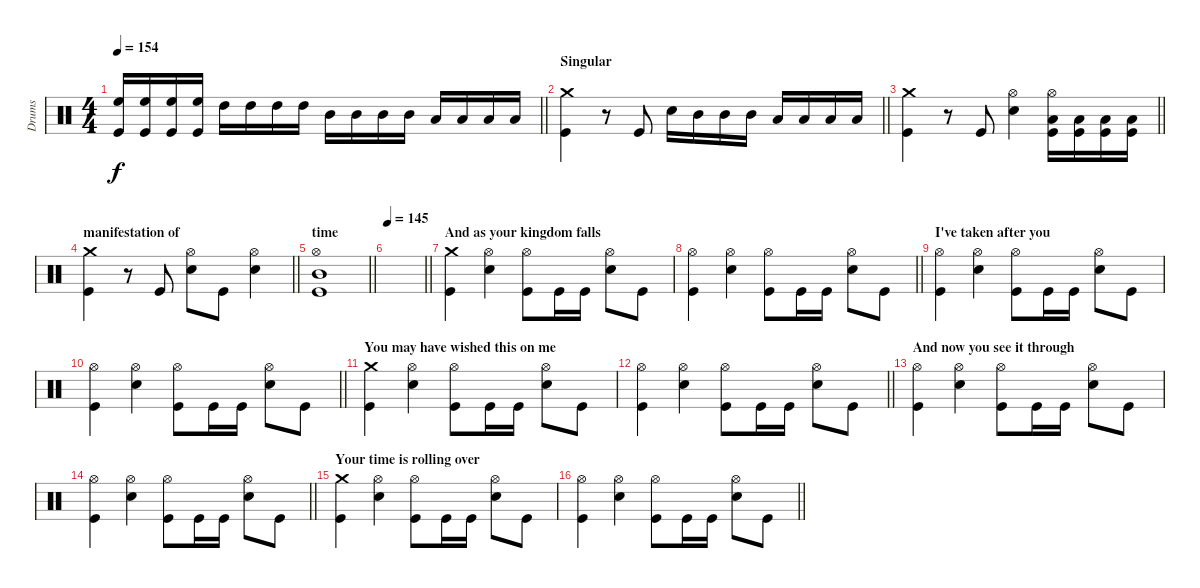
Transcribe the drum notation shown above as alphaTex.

\track ("Drums" "Drums") {instrument percussion}
\staff {score}
\articulation defaults
\ts (4 4)
\tempo 154
\clef neutral
\barLineRight lightlight
\ks c
("High Floor Tom (hit)" "Kick (hit)").16{dy f} ("High Floor Tom (hit)" "Kick (hit)").16 ("High Floor Tom (hit)" "Kick (hit)").16 ("High Floor Tom (hit)" "Kick (hit)").16 "High Tom (hit)".16 "High Tom (hit)".16 "High Tom (hit)".16 "High Tom (hit)".16 "Mid Tom (hit)".16 "Mid Tom (hit)".16 "Mid Tom (hit)".16 "Mid Tom (hit)".16 "Low Tom (hit)".16 "Low Tom (hit)".16 "Low Tom (hit)".16 "Low Tom (hit)".16 |
\section ("" "Singular")
\barLineRight lightlight
("Crash medium (hit)" "Kick (hit)").4 r.8 "Kick (hit)".8 "Snare (hit) 2".16 "Mid Tom (hit)".16 "Mid Tom (hit)".16 "Mid Tom (hit)".16 "Low Tom (hit)".16 "Low Tom (hit)".16 "Low Tom (hit)".16 "Low Tom (hit)".16 |
\barLineRight lightlight
("Crash medium (hit)" "Kick (hit)").4 r.8 "Kick (hit)".8 ("Hi-Hat (open)" "Snare (hit) 2").4 ("Hi-Hat (open)" "Low Tom (hit)" "Kick (hit)").16 ("Low Tom (hit)" "Kick (hit)").16 ("Low Tom (hit)" "Kick (hit)").16 ("Low Tom (hit)" "Kick (hit)").16 |
\section ("" "manifestation of ")
\barLineRight lightlight
("Crash medium (hit)" "Kick (hit)").4 r.8 "Kick (hit)".8 ("Hi-Hat (open)" "Snare (hit) 2").8 "Kick (hit)".8 ("Hi-Hat (open)" "Snare (hit) 2").4 |
\section ("" "time")
\barLineRight lightlight
("Hi-Hat (open)" "Mid Tom (hit)" "Kick (hit)").1 |
\tempo 145
\barLineRight lightlight
|
\section ("" "And as your kingdom falls")
("Crash medium (hit)" "Kick (hit)").4 ("Hi-Hat (open)" "Snare (hit) 2").4 ("Hi-Hat (open)" "Kick (hit)").8 "Kick (hit)".16 "Kick (hit)".16 ("Hi-Hat (open)" "Snare (hit) 2").8 "Kick (hit)".8 |
\barLineRight lightlight
("Hi-Hat (open)" "Kick (hit)").4 ("Hi-Hat (open)" "Snare (hit) 2").4 ("Hi-Hat (open)" "Kick (hit)").8 "Kick (hit)".16 "Kick (hit)".16 ("Hi-Hat (open)" "Snare (hit) 2").8 "Kick (hit)".8 |
\section ("" "I've taken after you")
("Hi-Hat (open)" "Kick (hit)").4 ("Hi-Hat (open)" "Snare (hit) 2").4 ("Hi-Hat (open)" "Kick (hit)").8 "Kick (hit)".16 "Kick (hit)".16 ("Hi-Hat (open)" "Snare (hit) 2").8 "Kick (hit)".8 |
\barLineRight lightlight
("Hi-Hat (open)" "Kick (hit)").4 ("Hi-Hat (open)" "Snare (hit) 2").4 ("Hi-Hat (open)" "Kick (hit)").8 "Kick (hit)".16 "Kick (hit)".16 ("Hi-Hat (open)" "Snare (hit) 2").8 "Kick (hit)".8 |
\section ("" "You may have wished this on me")
("Crash medium (hit)" "Kick (hit)").4 ("Hi-Hat (open)" "Snare (hit) 2").4 ("Hi-Hat (open)" "Kick (hit)").8 "Kick (hit)".16 "Kick (hit)".16 ("Hi-Hat (open)" "Snare (hit) 2").8 "Kick (hit)".8 |
\barLineRight lightlight
("Hi-Hat (open)" "Kick (hit)").4 ("Hi-Hat (open)" "Snare (hit) 2").4 ("Hi-Hat (open)" "Kick (hit)").8 "Kick (hit)".16 "Kick (hit)".16 ("Hi-Hat (open)" "Snare (hit) 2").8 "Kick (hit)".8 |
\section ("" "And now you see it through")
("Hi-Hat (open)" "Kick (hit)").4 ("Hi-Hat (open)" "Snare (hit) 2").4 ("Hi-Hat (open)" "Kick (hit)").8 "Kick (hit)".16 "Kick (hit)".16 ("Hi-Hat (open)" "Snare (hit) 2").8 "Kick (hit)".8 |
\barLineRight lightlight
("Hi-Hat (open)" "Kick (hit)").4 ("Hi-Hat (open)" "Snare (hit) 2").4 ("Hi-Hat (open)" "Kick (hit)").8 "Kick (hit)".16 "Kick (hit)".16 ("Hi-Hat (open)" "Snare (hit) 2").8 "Kick (hit)".8 |
\section ("" "Your time is rolling over")
("Crash medium (hit)" "Kick (hit)").4 ("Hi-Hat (open)" "Snare (hit) 2").4 ("Hi-Hat (open)" "Kick (hit)").8 "Kick (hit)".16 "Kick (hit)".16 ("Hi-Hat (open)" "Snare (hit) 2").8 "Kick (hit)".8 |
\barLineRight lightlight
("Hi-Hat (open)" "Kick (hit)").4 ("Hi-Hat (open)" "Snare (hit) 2").4 ("Hi-Hat (open)" "Kick (hit)").8 "Kick (hit)".16 "Kick (hit)".16 ("Hi-Hat (open)" "Snare (hit) 2").8 "Kick (hit)".8
